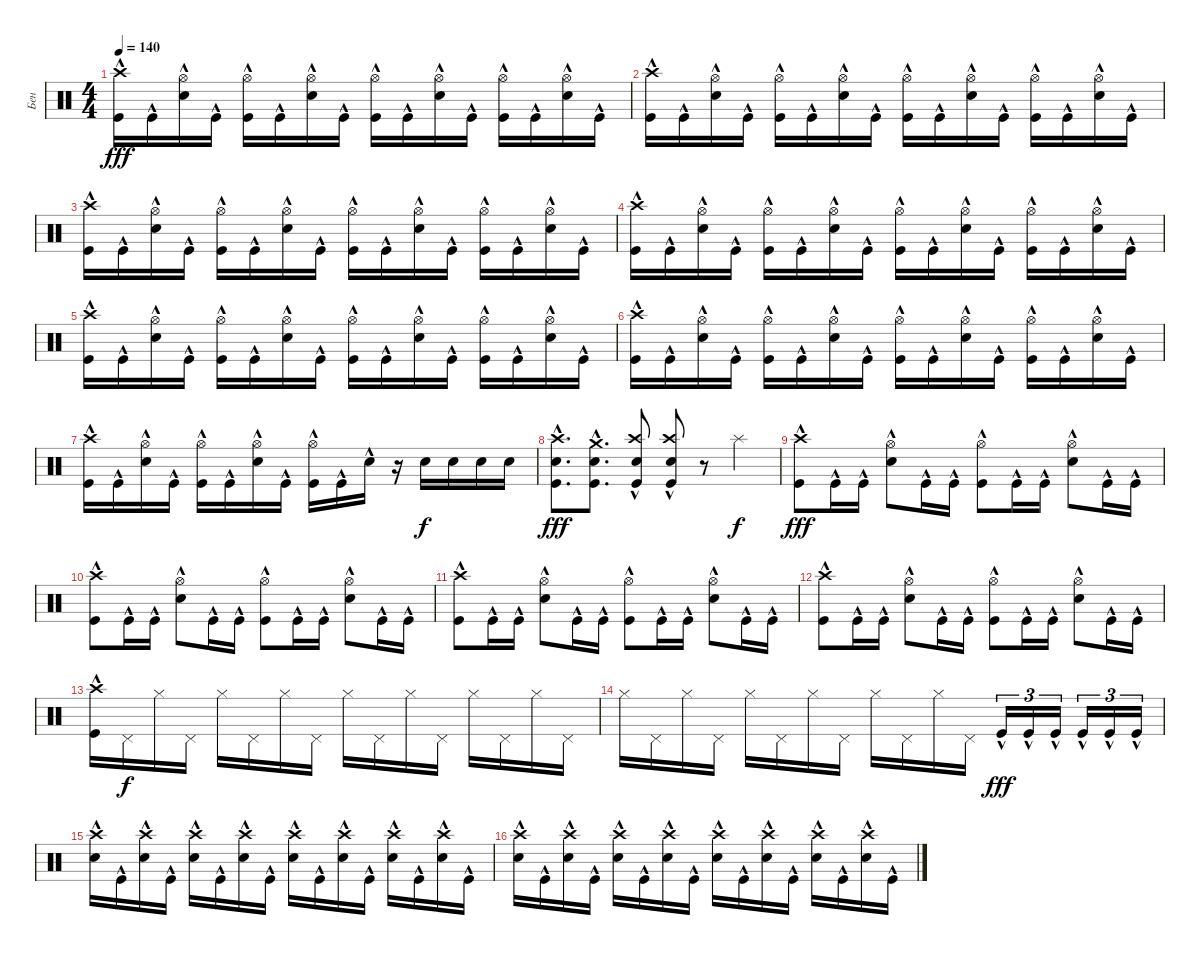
\track ("Бен" "Бен") {instrument percussion}
\staff {score}
\articulation defaults
\ts (4 4)
\tempo 140
\clef neutral
\ks c
("Kick (hit)"{hac} "Crash high (hit)"{hac}).16{dy fff} "Kick (hit)"{hac}.16 ("Snare (hit) 2"{hac} "Hi-Hat (open)").16 "Kick (hit)"{hac}.16 ("Kick (hit)"{hac} "Hi-Hat (open)").16 "Kick (hit)"{hac}.16 ("Snare (hit) 2"{hac} "Hi-Hat (open)").16 "Kick (hit)"{hac}.16 ("Kick (hit)"{hac} "Hi-Hat (open)").16 "Kick (hit)"{hac}.16 ("Snare (hit) 2"{hac} "Hi-Hat (open)").16 "Kick (hit)"{hac}.16 ("Kick (hit)"{hac} "Hi-Hat (open)").16 "Kick (hit)"{hac}.16 ("Snare (hit) 2"{hac} "Hi-Hat (open)").16 "Kick (hit)"{hac}.16 |
("Kick (hit)"{hac} "Crash high (hit)"{hac}).16 "Kick (hit)"{hac}.16 ("Snare (hit) 2"{hac} "Hi-Hat (open)").16 "Kick (hit)"{hac}.16 ("Kick (hit)"{hac} "Hi-Hat (open)").16 "Kick (hit)"{hac}.16 ("Snare (hit) 2"{hac} "Hi-Hat (open)").16 "Kick (hit)"{hac}.16 ("Kick (hit)"{hac} "Hi-Hat (open)").16 "Kick (hit)"{hac}.16 ("Snare (hit) 2"{hac} "Hi-Hat (open)").16 "Kick (hit)"{hac}.16 ("Kick (hit)"{hac} "Hi-Hat (open)").16 "Kick (hit)"{hac}.16 ("Snare (hit) 2"{hac} "Hi-Hat (open)").16 "Kick (hit)"{hac}.16 |
("Kick (hit)"{hac} "Crash high (hit)"{hac}).16 "Kick (hit)"{hac}.16 ("Snare (hit) 2"{hac} "Hi-Hat (open)").16 "Kick (hit)"{hac}.16 ("Kick (hit)"{hac} "Hi-Hat (open)").16 "Kick (hit)"{hac}.16 ("Snare (hit) 2"{hac} "Hi-Hat (open)").16 "Kick (hit)"{hac}.16 ("Kick (hit)"{hac} "Hi-Hat (open)").16 "Kick (hit)"{hac}.16 ("Snare (hit) 2"{hac} "Hi-Hat (open)").16 "Kick (hit)"{hac}.16 ("Kick (hit)"{hac} "Hi-Hat (open)").16 "Kick (hit)"{hac}.16 ("Snare (hit) 2"{hac} "Hi-Hat (open)").16 "Kick (hit)"{hac}.16 |
("Kick (hit)"{hac} "Crash high (hit)"{hac}).16 "Kick (hit)"{hac}.16 ("Snare (hit) 2"{hac} "Hi-Hat (open)").16 "Kick (hit)"{hac}.16 ("Kick (hit)"{hac} "Hi-Hat (open)").16 "Kick (hit)"{hac}.16 ("Snare (hit) 2"{hac} "Hi-Hat (open)").16 "Kick (hit)"{hac}.16 ("Kick (hit)"{hac} "Hi-Hat (open)").16 "Kick (hit)"{hac}.16 ("Snare (hit) 2"{hac} "Hi-Hat (open)").16 "Kick (hit)"{hac}.16 ("Kick (hit)"{hac} "Hi-Hat (open)").16 "Kick (hit)"{hac}.16 ("Snare (hit) 2"{hac} "Hi-Hat (open)").16 "Kick (hit)"{hac}.16 |
("Kick (hit)"{hac} "Crash high (hit)"{hac}).16 "Kick (hit)"{hac}.16 ("Snare (hit) 2"{hac} "Hi-Hat (open)").16 "Kick (hit)"{hac}.16 ("Kick (hit)"{hac} "Hi-Hat (open)").16 "Kick (hit)"{hac}.16 ("Snare (hit) 2"{hac} "Hi-Hat (open)").16 "Kick (hit)"{hac}.16 ("Kick (hit)"{hac} "Hi-Hat (open)").16 "Kick (hit)"{hac}.16 ("Snare (hit) 2"{hac} "Hi-Hat (open)").16 "Kick (hit)"{hac}.16 ("Kick (hit)"{hac} "Hi-Hat (open)").16 "Kick (hit)"{hac}.16 ("Snare (hit) 2"{hac} "Hi-Hat (open)").16 "Kick (hit)"{hac}.16 |
("Kick (hit)"{hac} "Crash high (hit)"{hac}).16 "Kick (hit)"{hac}.16 ("Snare (hit) 2"{hac} "Hi-Hat (open)").16 "Kick (hit)"{hac}.16 ("Kick (hit)"{hac} "Hi-Hat (open)").16 "Kick (hit)"{hac}.16 ("Snare (hit) 2"{hac} "Hi-Hat (open)").16 "Kick (hit)"{hac}.16 ("Kick (hit)"{hac} "Hi-Hat (open)").16 "Kick (hit)"{hac}.16 ("Snare (hit) 2"{hac} "Hi-Hat (open)").16 "Kick (hit)"{hac}.16 ("Kick (hit)"{hac} "Hi-Hat (open)").16 "Kick (hit)"{hac}.16 ("Snare (hit) 2"{hac} "Hi-Hat (open)").16 "Kick (hit)"{hac}.16 |
("Kick (hit)"{hac} "Crash high (hit)"{hac}).16 "Kick (hit)"{hac}.16 ("Snare (hit) 2"{hac} "Hi-Hat (open)").16 "Kick (hit)"{hac}.16 ("Kick (hit)"{hac} "Hi-Hat (open)").16 "Kick (hit)"{hac}.16 ("Snare (hit) 2"{hac} "Hi-Hat (open)").16 "Kick (hit)"{hac}.16 ("Kick (hit)"{hac} "Hi-Hat (open)").16 "Kick (hit)"{hac}.16 "Snare (hit) 2"{hac}.16 r.16 "Snare (hit) 2".16{dy f} "Snare (hit) 2".16 "Snare (hit) 2".16 "Snare (hit) 2".16 |
("Snare (hit) 2"{hac} "Crash high (hit)"{hac} "Kick (hit)"{hac}).8{d dy fff} ("Snare (hit) 2"{hac} "Crash medium (hit)"{hac} "Kick (hit)"{hac}).8{d} ("Snare (hit) 2"{hac} "Crash high (hit)"{hac} "Kick (hit)"{hac}).8 ("Snare (hit) 2"{hac} "Crash high (hit)"{hac} "Kick (hit)"{hac}).8 r.8 "Splash (hit)".4{dy f} |
("Kick (hit)"{hac} "Crash high (hit)"{hac}).8{dy fff} "Kick (hit)"{hac}.16 "Kick (hit)"{hac}.16 ("Snare (hit) 2"{hac} "Hi-Hat (open)").8 "Kick (hit)"{hac}.16 "Kick (hit)"{hac}.16 ("Kick (hit)"{hac} "Hi-Hat (open)").8 "Kick (hit)"{hac}.16 "Kick (hit)"{hac}.16 ("Snare (hit) 2"{hac} "Hi-Hat (open)").8 "Kick (hit)"{hac}.16 "Kick (hit)"{hac}.16 |
("Kick (hit)"{hac} "Crash high (hit)"{hac}).8 "Kick (hit)"{hac}.16 "Kick (hit)"{hac}.16 ("Snare (hit) 2"{hac} "Hi-Hat (open)").8 "Kick (hit)"{hac}.16 "Kick (hit)"{hac}.16 ("Kick (hit)"{hac} "Hi-Hat (open)").8 "Kick (hit)"{hac}.16 "Kick (hit)"{hac}.16 ("Snare (hit) 2"{hac} "Hi-Hat (open)").8 "Kick (hit)"{hac}.16 "Kick (hit)"{hac}.16 |
("Kick (hit)"{hac} "Crash high (hit)"{hac}).8 "Kick (hit)"{hac}.16 "Kick (hit)"{hac}.16 ("Snare (hit) 2"{hac} "Hi-Hat (open)").8 "Kick (hit)"{hac}.16 "Kick (hit)"{hac}.16 ("Kick (hit)"{hac} "Hi-Hat (open)").8 "Kick (hit)"{hac}.16 "Kick (hit)"{hac}.16 ("Snare (hit) 2"{hac} "Hi-Hat (open)").8 "Kick (hit)"{hac}.16 "Kick (hit)"{hac}.16 |
("Kick (hit)"{hac} "Crash high (hit)"{hac}).8 "Kick (hit)"{hac}.16 "Kick (hit)"{hac}.16 ("Snare (hit) 2"{hac} "Hi-Hat (open)").8 "Kick (hit)"{hac}.16 "Kick (hit)"{hac}.16 ("Kick (hit)"{hac} "Hi-Hat (open)").8 "Kick (hit)"{hac}.16 "Kick (hit)"{hac}.16 ("Snare (hit) 2"{hac} "Hi-Hat (open)").8 "Kick (hit)"{hac}.16 "Kick (hit)"{hac}.16 |
("Crash high (hit)"{hac} "Kick (hit)"{hac}).16 "Pedal Hi-Hat (hit)".16{dy f} "Hi-Hat (closed)".16 "Pedal Hi-Hat (hit)".16 "Hi-Hat (closed)".16 "Pedal Hi-Hat (hit)".16 "Hi-Hat (closed)".16 "Pedal Hi-Hat (hit)".16 "Hi-Hat (closed)".16 "Pedal Hi-Hat (hit)".16 "Hi-Hat (closed)".16 "Pedal Hi-Hat (hit)".16 "Hi-Hat (closed)".16 "Pedal Hi-Hat (hit)".16 "Hi-Hat (closed)".16 "Pedal Hi-Hat (hit)".16 |
"Hi-Hat (closed)".16 "Pedal Hi-Hat (hit)".16 "Hi-Hat (closed)".16 "Pedal Hi-Hat (hit)".16 "Hi-Hat (closed)".16 "Pedal Hi-Hat (hit)".16 "Hi-Hat (closed)".16 "Pedal Hi-Hat (hit)".16 "Hi-Hat (closed)".16 "Pedal Hi-Hat (hit)".16 "Hi-Hat (closed)".16 "Pedal Hi-Hat (hit)".16 "Kick (hit)"{hac}.16{tu (3 2) dy fff} "Kick (hit)"{hac}.16{tu (3 2)} "Kick (hit)"{hac}.16{tu (3 2) beam splitsecondary} "Kick (hit)"{hac}.16{tu (3 2)} "Kick (hit)"{hac}.16{tu (3 2)} "Kick (hit)"{hac}.16{tu (3 2)} |
("Snare (hit) 2"{hac} "Crash high (hit)"{hac}).16 "Kick (hit)"{hac}.16 ("Crash high (hit)" "Snare (hit) 2"{hac}).16 "Kick (hit)"{hac}.16 ("Crash high (hit)" "Snare (hit) 2"{hac}).16 "Kick (hit)"{hac}.16 ("Crash high (hit)" "Snare (hit) 2"{hac}).16 "Kick (hit)"{hac}.16 ("Snare (hit) 2"{hac} "Crash high (hit)").16 "Kick (hit)"{hac}.16 ("Crash high (hit)" "Snare (hit) 2"{hac}).16 "Kick (hit)"{hac}.16 ("Crash high (hit)" "Snare (hit) 2"{hac}).16 "Kick (hit)"{hac}.16 ("Crash high (hit)" "Snare (hit) 2"{hac}).16 "Kick (hit)"{hac}.16 |
("Snare (hit) 2"{hac} "Crash high (hit)"{hac}).16 "Kick (hit)"{hac}.16 ("Crash high (hit)" "Snare (hit) 2"{hac}).16 "Kick (hit)"{hac}.16 ("Crash high (hit)" "Snare (hit) 2"{hac}).16 "Kick (hit)"{hac}.16 ("Crash high (hit)" "Snare (hit) 2"{hac}).16 "Kick (hit)"{hac}.16 ("Snare (hit) 2"{hac} "Crash high (hit)").16 "Kick (hit)"{hac}.16 ("Crash high (hit)" "Snare (hit) 2"{hac}).16 "Kick (hit)"{hac}.16 ("Crash high (hit)" "Snare (hit) 2"{hac}).16 "Kick (hit)"{hac}.16 ("Crash high (hit)" "Snare (hit) 2"{hac}).16 "Kick (hit)"{hac}.16
